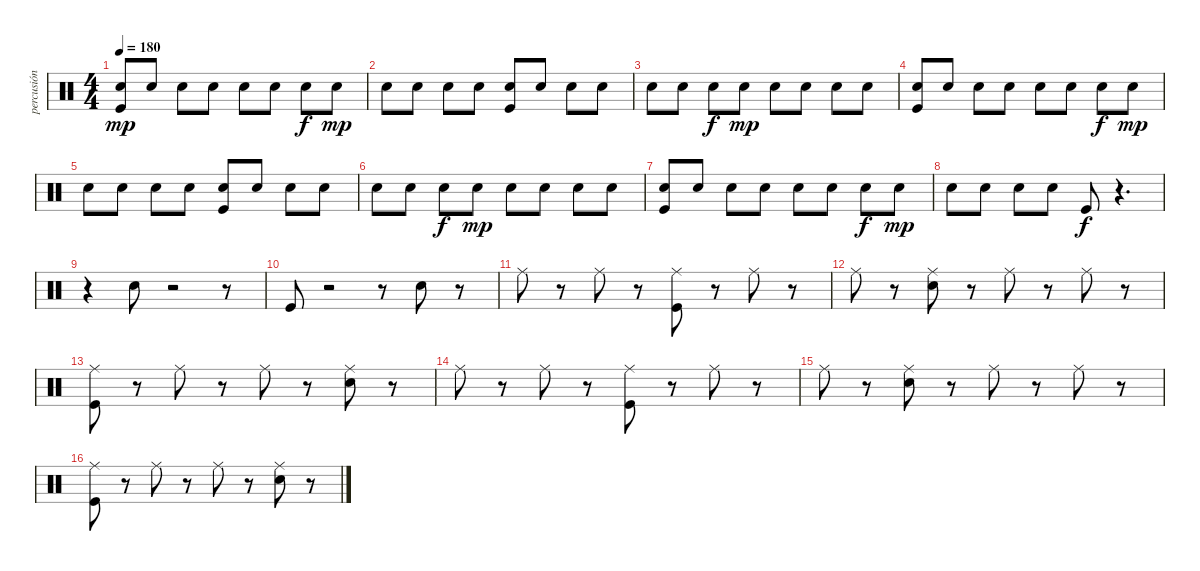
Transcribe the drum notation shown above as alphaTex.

\track ("percusión" "percusión") {instrument percussion}
\staff {score}
\articulation defaults
\ts (4 4)
\tempo 180
\clef neutral
\ks c
("Kick (hit)" "Snare (hit) 2").8{dy mp} "Snare (hit) 2".8 "Snare (hit) 2".8 "Snare (hit) 2".8 "Snare (hit) 2".8 "Snare (hit) 2".8 "Snare (hit) 2".8{dy f} "Snare (hit) 2".8{dy mp} |
"Snare (hit) 2".8 "Snare (hit) 2".8 "Snare (hit) 2".8 "Snare (hit) 2".8 ("Kick (hit)" "Snare (hit) 2").8 "Snare (hit) 2".8 "Snare (hit) 2".8 "Snare (hit) 2".8 |
"Snare (hit) 2".8 "Snare (hit) 2".8 "Snare (hit) 2".8{dy f} "Snare (hit) 2".8{dy mp} "Snare (hit) 2".8 "Snare (hit) 2".8 "Snare (hit) 2".8 "Snare (hit) 2".8 |
("Snare (hit) 2" "Kick (hit)").8 "Snare (hit) 2".8 "Snare (hit) 2".8 "Snare (hit) 2".8 "Snare (hit) 2".8 "Snare (hit) 2".8 "Snare (hit) 2".8{dy f} "Snare (hit) 2".8{dy mp} |
"Snare (hit) 2".8 "Snare (hit) 2".8 "Snare (hit) 2".8 "Snare (hit) 2".8 ("Kick (hit)" "Snare (hit) 2").8 "Snare (hit) 2".8 "Snare (hit) 2".8 "Snare (hit) 2".8 |
"Snare (hit) 2".8 "Snare (hit) 2".8 "Snare (hit) 2".8{dy f} "Snare (hit) 2".8{dy mp} "Snare (hit) 2".8 "Snare (hit) 2".8 "Snare (hit) 2".8 "Snare (hit) 2".8 |
("Kick (hit)" "Snare (hit) 2").8 "Snare (hit) 2".8 "Snare (hit) 2".8 "Snare (hit) 2".8 "Snare (hit) 2".8 "Snare (hit) 2".8 "Snare (hit) 2".8{dy f} "Snare (hit) 2".8{dy mp} |
"Snare (hit) 2".8 "Snare (hit) 2".8 "Snare (hit) 2".8 "Snare (hit) 2".8 "Kick (hit)".8{dy f} r.4{d} |
r.4 "Snare (hit) 2".8 r.2 r.8 |
"Kick (hit)".8 r.2 r.8 "Snare (hit) 2".8 r.8 |
"Ride (middle)".8 r.8 "Ride (middle)".8 r.8 ("Kick (hit)" "Ride (middle)").8 r.8 "Ride (middle)".8 r.8 |
"Ride (middle)".8 r.8 ("Snare (hit) 2" "Ride (middle)").8 r.8 "Ride (middle)".8 r.8 "Ride (middle)".8 r.8 |
("Ride (middle)" "Kick (hit)").8 r.8 "Ride (middle)".8 r.8 "Ride (middle)".8 r.8 ("Ride (middle)" "Snare (hit) 2").8 r.8 |
"Ride (middle)".8 r.8 "Ride (middle)".8 r.8 ("Ride (middle)" "Kick (hit)").8 r.8 "Ride (middle)".8 r.8 |
"Ride (middle)".8 r.8 ("Ride (middle)" "Snare (hit) 2").8 r.8 "Ride (middle)".8 r.8 "Ride (middle)".8 r.8 |
("Kick (hit)" "Ride (middle)").8 r.8 "Ride (middle)".8 r.8 "Ride (middle)".8 r.8 ("Ride (middle)" "Snare (hit) 2").8 r.8
